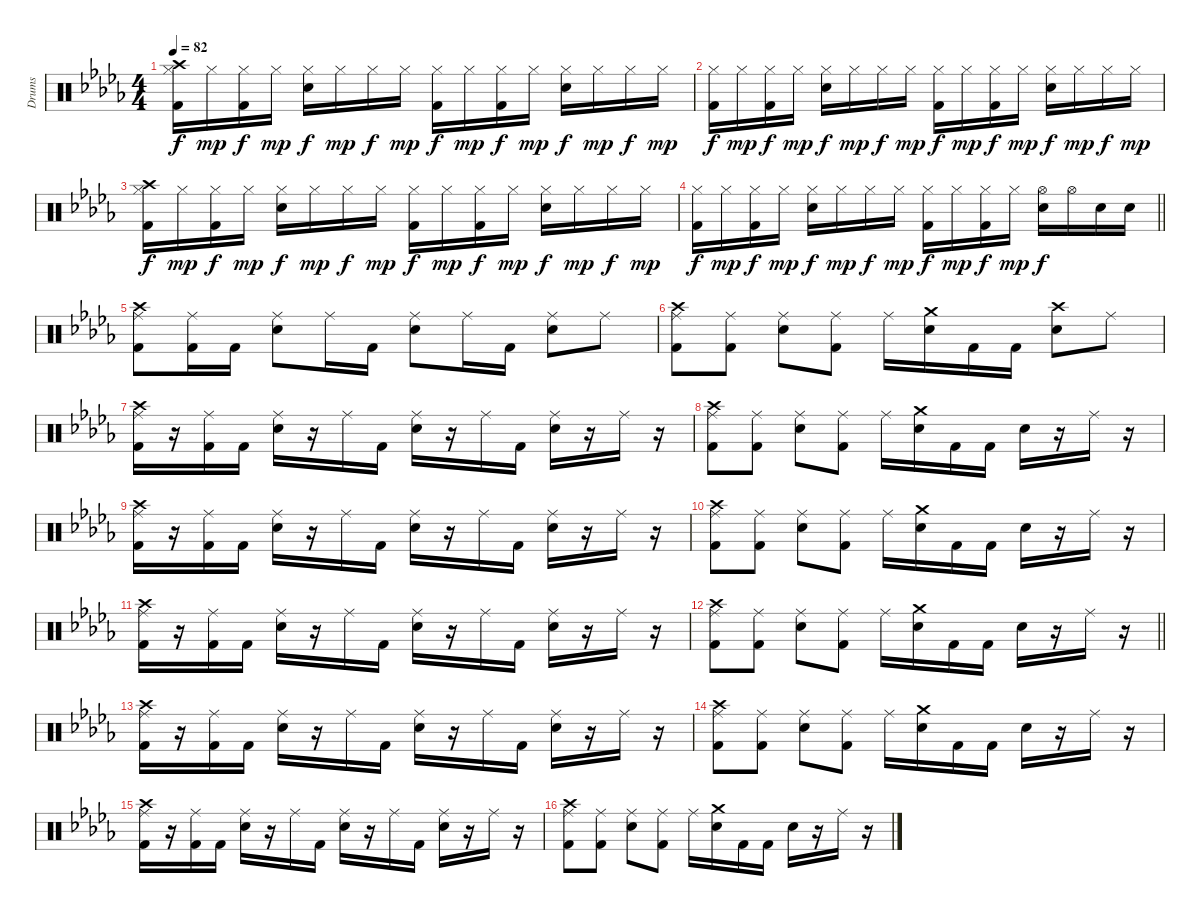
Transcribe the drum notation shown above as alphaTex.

\track ("Drums" "Drums") {instrument percussion}
\staff {score}
\articulation defaults
\ts (4 4)
\tempo 82
\clef neutral
\ks db
("Crash high (hit)" "Hi-Hat (closed)" "Kick (hit) 2").16{dy f} "Hi-Hat (closed)".16{dy mp} ("Hi-Hat (closed)" "Kick (hit) 2").16{dy f} "Hi-Hat (closed)".16{dy mp} ("Hi-Hat (closed)" "Electric Snare (hit)").16{dy f} "Hi-Hat (closed)".16{dy mp} "Hi-Hat (closed)".16{dy f} "Hi-Hat (closed)".16{dy mp} ("Hi-Hat (closed)" "Kick (hit) 2").16{dy f} "Hi-Hat (closed)".16{dy mp} ("Hi-Hat (closed)" "Kick (hit) 2").16{dy f} "Hi-Hat (closed)".16{dy mp} ("Hi-Hat (closed)" "Electric Snare (hit)").16{dy f} "Hi-Hat (closed)".16{dy mp} "Hi-Hat (closed)".16{dy f} "Hi-Hat (closed)".16{dy mp} |
("Hi-Hat (closed)" "Kick (hit) 2").16{dy f} "Hi-Hat (closed)".16{dy mp} ("Hi-Hat (closed)" "Kick (hit) 2").16{dy f} "Hi-Hat (closed)".16{dy mp} ("Hi-Hat (closed)" "Electric Snare (hit)").16{dy f} "Hi-Hat (closed)".16{dy mp} "Hi-Hat (closed)".16{dy f} "Hi-Hat (closed)".16{dy mp} ("Hi-Hat (closed)" "Kick (hit) 2").16{dy f} "Hi-Hat (closed)".16{dy mp} ("Hi-Hat (closed)" "Kick (hit) 2").16{dy f} "Hi-Hat (closed)".16{dy mp} ("Hi-Hat (closed)" "Electric Snare (hit)").16{dy f} "Hi-Hat (closed)".16{dy mp} "Hi-Hat (closed)".16{dy f} "Hi-Hat (closed)".16{dy mp} |
("Crash high (hit)" "Hi-Hat (closed)" "Kick (hit) 2").16{dy f} "Hi-Hat (closed)".16{dy mp} ("Hi-Hat (closed)" "Kick (hit) 2").16{dy f} "Hi-Hat (closed)".16{dy mp} ("Hi-Hat (closed)" "Electric Snare (hit)").16{dy f} "Hi-Hat (closed)".16{dy mp} "Hi-Hat (closed)".16{dy f} "Hi-Hat (closed)".16{dy mp} ("Hi-Hat (closed)" "Kick (hit) 2").16{dy f} "Hi-Hat (closed)".16{dy mp} ("Hi-Hat (closed)" "Kick (hit) 2").16{dy f} "Hi-Hat (closed)".16{dy mp} ("Hi-Hat (closed)" "Electric Snare (hit)").16{dy f} "Hi-Hat (closed)".16{dy mp} "Hi-Hat (closed)".16{dy f} "Hi-Hat (closed)".16{dy mp} |
\barLineRight lightlight
("Hi-Hat (closed)" "Kick (hit) 2").16{dy f} "Hi-Hat (closed)".16{dy mp} ("Hi-Hat (closed)" "Kick (hit) 2").16{dy f} "Hi-Hat (closed)".16{dy mp} ("Hi-Hat (closed)" "Electric Snare (hit)").16{dy f} "Hi-Hat (closed)".16{dy mp} "Hi-Hat (closed)".16{dy f} "Hi-Hat (closed)".16{dy mp} ("Hi-Hat (closed)" "Kick (hit) 2").16{dy f} "Hi-Hat (closed)".16{dy mp} ("Hi-Hat (closed)" "Kick (hit) 2").16{dy f} "Hi-Hat (closed)".16{dy mp} ("Hi-Hat (open)" "Electric Snare (hit)").16{dy f} "Hi-Hat (open)".16 "Electric Snare (hit)".16 "Electric Snare (hit)".16 |
\section ("" "")
("Crash high (hit)" "Ride (middle)" "Kick (hit) 2").8 ("Ride (middle)" "Kick (hit) 2").16 "Kick (hit) 2".16 ("Ride (middle)" "Electric Snare (hit)").8 "Ride (middle)".16 "Kick (hit) 2".16 ("Ride (middle)" "Electric Snare (hit)").8 "Ride (middle)".16 "Kick (hit) 2".16 ("Ride (middle)" "Electric Snare (hit)").8 "Ride (middle)".8 |
("Crash high (hit)" "Ride (middle)" "Kick (hit) 2").8 ("Ride (middle)" "Kick (hit) 2").8 ("Ride (middle)" "Electric Snare (hit)").8 ("Ride (middle)" "Kick (hit) 2").8 "Ride (middle)".16 ("Crash medium (hit)" "Electric Snare (hit)").16 "Kick (hit) 2".16 "Kick (hit) 2".16 ("Crash high (hit)" "Electric Snare (hit)").8 "Ride (middle)".8 |
("Crash high (hit)" "Ride (middle)" "Kick (hit) 2").16 r.16 ("Ride (middle)" "Kick (hit) 2").16 "Kick (hit) 2".16 ("Ride (middle)" "Electric Snare (hit)").16 r.16 "Ride (middle)".16 "Kick (hit) 2".16 ("Ride (middle)" "Electric Snare (hit)").16 r.16 "Ride (middle)".16 "Kick (hit) 2".16 ("Ride (middle)" "Electric Snare (hit)").16 r.16 "Ride (middle)".16 r.16 |
("Crash high (hit)" "Ride (middle)" "Kick (hit) 2").8 ("Ride (middle)" "Kick (hit) 2").8 ("Ride (middle)" "Electric Snare (hit)").8 ("Ride (middle)" "Kick (hit) 2").8 "Ride (middle)".16 ("Crash medium (hit)" "Electric Snare (hit)").16 "Kick (hit) 2".16 "Kick (hit) 2".16 "Electric Snare (hit)".16 r.16 "Ride (middle)".16 r.16 |
("Crash high (hit)" "Ride (middle)" "Kick (hit) 2").16 r.16 ("Ride (middle)" "Kick (hit) 2").16 "Kick (hit) 2".16 ("Ride (middle)" "Electric Snare (hit)").16 r.16 "Ride (middle)".16 "Kick (hit) 2".16 ("Ride (middle)" "Electric Snare (hit)").16 r.16 "Ride (middle)".16 "Kick (hit) 2".16 ("Ride (middle)" "Electric Snare (hit)").16 r.16 "Ride (middle)".16 r.16 |
("Crash high (hit)" "Ride (middle)" "Kick (hit) 2").8 ("Ride (middle)" "Kick (hit) 2").8 ("Ride (middle)" "Electric Snare (hit)").8 ("Ride (middle)" "Kick (hit) 2").8 "Ride (middle)".16 ("Crash medium (hit)" "Electric Snare (hit)").16 "Kick (hit) 2".16 "Kick (hit) 2".16 "Electric Snare (hit)".16 r.16 "Ride (middle)".16 r.16 |
("Crash high (hit)" "Ride (middle)" "Kick (hit) 2").16 r.16 ("Ride (middle)" "Kick (hit) 2").16 "Kick (hit) 2".16 ("Ride (middle)" "Electric Snare (hit)").16 r.16 "Ride (middle)".16 "Kick (hit) 2".16 ("Ride (middle)" "Electric Snare (hit)").16 r.16 "Ride (middle)".16 "Kick (hit) 2".16 ("Ride (middle)" "Electric Snare (hit)").16 r.16 "Ride (middle)".16 r.16 |
\barLineRight lightlight
("Crash high (hit)" "Ride (middle)" "Kick (hit) 2").8 ("Ride (middle)" "Kick (hit) 2").8 ("Ride (middle)" "Electric Snare (hit)").8 ("Ride (middle)" "Kick (hit) 2").8 "Ride (middle)".16 ("Crash medium (hit)" "Electric Snare (hit)").16 "Kick (hit) 2".16 "Kick (hit) 2".16 "Electric Snare (hit)".16 r.16 "Ride (middle)".16 r.16 |
\section ("" "")
("Crash high (hit)" "Ride (middle)" "Kick (hit) 2").16 r.16 ("Ride (middle)" "Kick (hit) 2").16 "Kick (hit) 2".16 ("Ride (middle)" "Electric Snare (hit)").16 r.16 "Ride (middle)".16 "Kick (hit) 2".16 ("Ride (middle)" "Electric Snare (hit)").16 r.16 "Ride (middle)".16 "Kick (hit) 2".16 ("Ride (middle)" "Electric Snare (hit)").16 r.16 "Ride (middle)".16 r.16 |
("Crash high (hit)" "Ride (middle)" "Kick (hit) 2").8 ("Ride (middle)" "Kick (hit) 2").8 ("Ride (middle)" "Electric Snare (hit)").8 ("Ride (middle)" "Kick (hit) 2").8 "Ride (middle)".16 ("Crash medium (hit)" "Electric Snare (hit)").16 "Kick (hit) 2".16 "Kick (hit) 2".16 "Electric Snare (hit)".16 r.16 "Ride (middle)".16 r.16 |
("Crash high (hit)" "Ride (middle)" "Kick (hit) 2").16 r.16 ("Ride (middle)" "Kick (hit) 2").16 "Kick (hit) 2".16 ("Ride (middle)" "Electric Snare (hit)").16 r.16 "Ride (middle)".16 "Kick (hit) 2".16 ("Ride (middle)" "Electric Snare (hit)").16 r.16 "Ride (middle)".16 "Kick (hit) 2".16 ("Ride (middle)" "Electric Snare (hit)").16 r.16 "Ride (middle)".16 r.16 |
("Crash high (hit)" "Ride (middle)" "Kick (hit) 2").8 ("Ride (middle)" "Kick (hit) 2").8 ("Ride (middle)" "Electric Snare (hit)").8 ("Ride (middle)" "Kick (hit) 2").8 "Ride (middle)".16 ("Crash medium (hit)" "Electric Snare (hit)").16 "Kick (hit) 2".16 "Kick (hit) 2".16 "Electric Snare (hit)".16 r.16 "Ride (middle)".16 r.16
